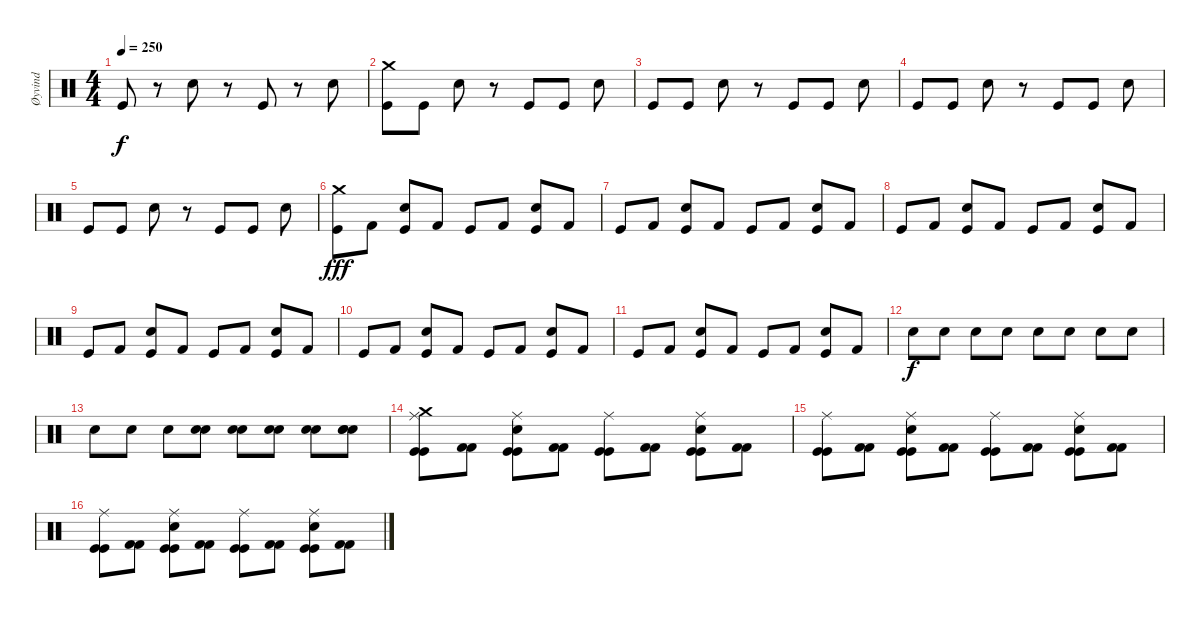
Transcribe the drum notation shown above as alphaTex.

\track ("Øyvind" "Øyvind") {instrument percussion}
\staff {score}
\articulation defaults
\ts (4 4)
\tempo 250
\clef neutral
\ks c "Kick (hit)".8{dy f}
r.8 "Snare (hit) 2".8 r.8 "Kick (hit)".8 r.8 "Snare (hit) 2".8 |
("Crash medium (hit)" "Kick (hit)").8 "Kick (hit)".8 "Snare (hit) 2".8 r.8 "Kick (hit)".8 "Kick (hit)".8 "Snare (hit) 2".8 |
"Kick (hit)".8 "Kick (hit)".8 "Snare (hit) 2".8 r.8 "Kick (hit)".8 "Kick (hit)".8 "Snare (hit) 2".8 |
"Kick (hit)".8 "Kick (hit)".8 "Snare (hit) 2".8 r.8 "Kick (hit)".8 "Kick (hit)".8 "Snare (hit) 2".8 |
"Kick (hit)".8 "Kick (hit)".8 "Snare (hit) 2".8 r.8 "Kick (hit)".8 "Kick (hit)".8 "Snare (hit) 2".8 |
("Crash medium (hit)" "Kick (hit)").8{dy fff} "Kick (hit) 2".8 ("Snare (hit) 2" "Kick (hit)").8 "Kick (hit) 2".8 "Kick (hit)".8 "Kick (hit) 2".8 ("Snare (hit) 2" "Kick (hit)").8 "Kick (hit) 2".8 |
"Kick (hit)".8 "Kick (hit) 2".8 ("Snare (hit) 2" "Kick (hit)").8 "Kick (hit) 2".8 "Kick (hit)".8 "Kick (hit) 2".8 ("Snare (hit) 2" "Kick (hit)").8 "Kick (hit) 2".8 |
"Kick (hit)".8 "Kick (hit) 2".8 ("Snare (hit) 2" "Kick (hit)").8 "Kick (hit) 2".8 "Kick (hit)".8 "Kick (hit) 2".8 ("Snare (hit) 2" "Kick (hit)").8 "Kick (hit) 2".8 |
"Kick (hit)".8 "Kick (hit) 2".8 ("Snare (hit) 2" "Kick (hit)").8 "Kick (hit) 2".8 "Kick (hit)".8 "Kick (hit) 2".8 ("Snare (hit) 2" "Kick (hit)").8 "Kick (hit) 2".8 |
"Kick (hit)".8 "Kick (hit) 2".8 ("Snare (hit) 2" "Kick (hit)").8 "Kick (hit) 2".8 "Kick (hit)".8 "Kick (hit) 2".8 ("Snare (hit) 2" "Kick (hit)").8 "Kick (hit) 2".8 |
"Kick (hit)".8 "Kick (hit) 2".8 ("Snare (hit) 2" "Kick (hit)").8 "Kick (hit) 2".8 "Kick (hit)".8 "Kick (hit) 2".8 ("Snare (hit) 2" "Kick (hit)").8 "Kick (hit) 2".8 |
"Snare (hit) 2".8{dy f} "Snare (hit) 2".8 "Snare (hit) 2".8 "Snare (hit) 2".8 "Snare (hit) 2".8 "Snare (hit) 2".8 "Snare (hit) 2".8 "Snare (hit) 2".8 |
"Snare (hit) 2".8 "Snare (hit) 2".8 "Snare (hit) 2".8 ("Snare (hit) 2" "Snare (hit) 2").8 ("Snare (hit) 2" "Snare (hit) 2").8 ("Snare (hit) 2" "Snare (hit) 2").8 ("Snare (hit) 2" "Snare (hit) 2").8 ("Snare (hit) 2" "Snare (hit) 2" "Snare (hit) 2").8 |
("Kick (hit)" "Crash medium (hit)" "Ride (middle)" "Kick (hit)").8 ("Kick (hit) 2" "Kick (hit) 2").8 ("Kick (hit)" "Snare (hit) 2" "Ride (middle)" "Kick (hit)").8 ("Kick (hit) 2" "Kick (hit) 2").8 ("Kick (hit)" "Ride (middle)" "Kick (hit)").8 ("Kick (hit) 2" "Kick (hit) 2").8 ("Kick (hit)" "Snare (hit) 2" "Ride (middle)" "Kick (hit)").8 ("Kick (hit) 2" "Kick (hit) 2").8 |
("Kick (hit)" "Ride (middle)" "Kick (hit)").8 ("Kick (hit) 2" "Kick (hit) 2").8 ("Kick (hit)" "Snare (hit) 2" "Ride (middle)" "Kick (hit)").8 ("Kick (hit) 2" "Kick (hit) 2").8 ("Kick (hit)" "Ride (middle)" "Kick (hit)").8 ("Kick (hit) 2" "Kick (hit) 2").8 ("Kick (hit)" "Snare (hit) 2" "Ride (middle)" "Kick (hit)").8 ("Kick (hit) 2" "Kick (hit) 2").8 |
("Kick (hit)" "Ride (middle)" "Kick (hit)").8 ("Kick (hit) 2" "Kick (hit) 2").8 ("Kick (hit)" "Snare (hit) 2" "Ride (middle)" "Kick (hit)").8 ("Kick (hit) 2" "Kick (hit) 2").8 ("Kick (hit)" "Ride (middle)" "Kick (hit)").8 ("Kick (hit) 2" "Kick (hit) 2").8 ("Kick (hit)" "Snare (hit) 2" "Ride (middle)" "Kick (hit)").8 ("Kick (hit) 2" "Kick (hit) 2").8
